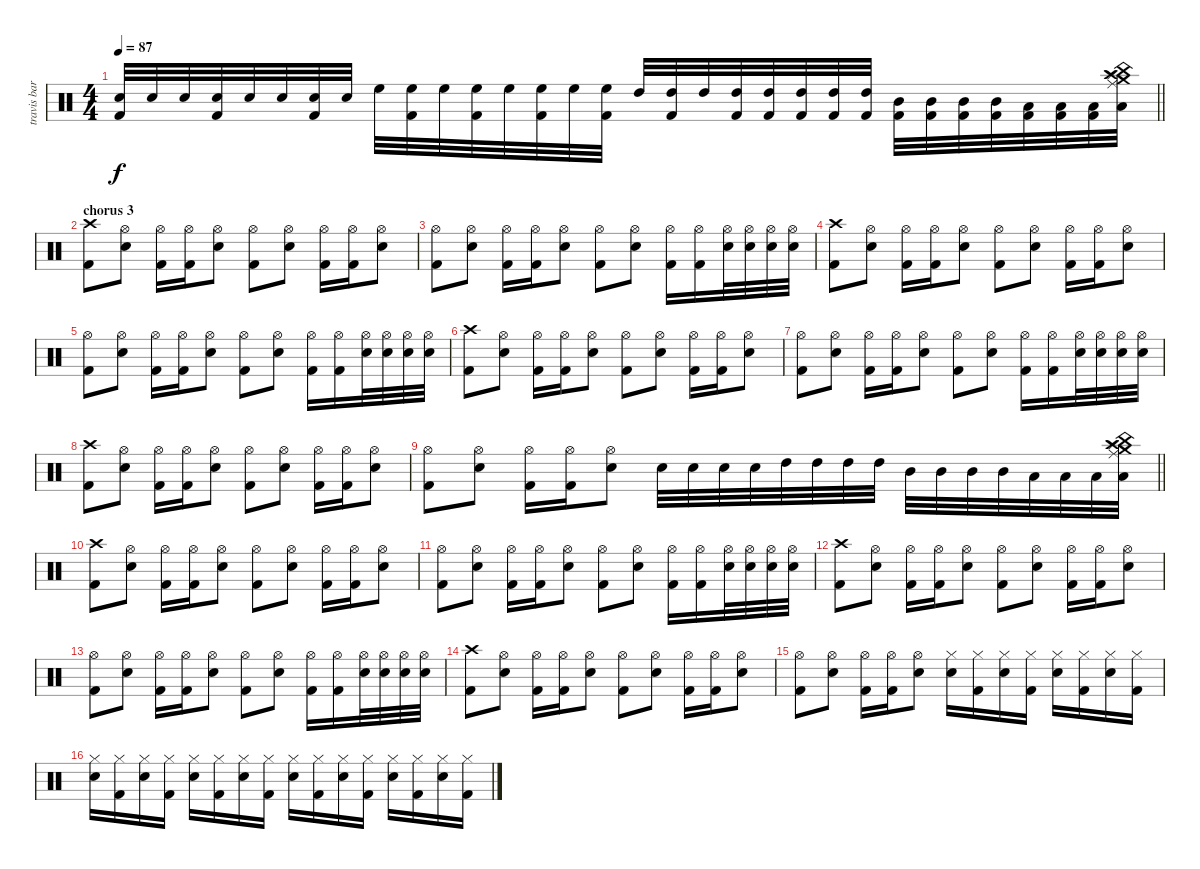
\track ("travis barker" "travis bar") {instrument percussion}
\staff {score}
\articulation defaults
\ts (4 4)
\tempo 87
\clef neutral
\barLineRight lightlight
\ks c
("Snare (hit) 2" "Kick (hit) 2").32{dy f} "Snare (hit) 2".32 "Snare (hit) 2".32 ("Snare (hit) 2" "Kick (hit) 2").32 "Snare (hit) 2".32 "Snare (hit) 2".32 ("Snare (hit) 2" "Kick (hit) 2").32 "Snare (hit) 2".32 "High Floor Tom (hit)".32 ("High Floor Tom (hit)" "Kick (hit) 2").32 "High Floor Tom (hit)".32 ("High Floor Tom (hit)" "Kick (hit) 2").32 "High Floor Tom (hit)".32 ("High Floor Tom (hit)" "Kick (hit) 2").32 "High Floor Tom (hit)".32 ("High Floor Tom (hit)" "Kick (hit) 2").32 "High Tom (hit)".32 ("High Tom (hit)" "Kick (hit) 2").32 "High Tom (hit)".32 ("High Tom (hit)" "Kick (hit) 2").32 ("High Tom (hit)" "Kick (hit) 2").32 ("High Tom (hit)" "Kick (hit) 2").32 ("High Tom (hit)" "Kick (hit) 2").32 ("High Tom (hit)" "Kick (hit) 2").32 ("Mid Tom (hit)" "Kick (hit) 2").32 ("Mid Tom (hit)" "Kick (hit) 2").32 ("Mid Tom (hit)" "Kick (hit) 2").32 ("Mid Tom (hit)" "Kick (hit) 2").32 ("Low Tom (hit)" "Kick (hit) 2").32 ("Low Tom (hit)" "Kick (hit) 2").32 ("Low Tom (hit)" "Kick (hit) 2").32 ("Splash (hit)" "China (hit)" "Ride (middle)" "Low Tom (hit)" "Crash high (hit)" "Crash medium (hit)").32 |
\section ("" "chorus 3")
("Crash high (hit)" "Kick (hit) 2").8 ("Hi-Hat (open)" "Snare (hit) 2").8 ("Hi-Hat (open)" "Kick (hit) 2").16 ("Hi-Hat (open)" "Kick (hit) 2").16 ("Hi-Hat (open)" "Snare (hit) 2").8 ("Hi-Hat (open)" "Kick (hit) 2").8 ("Hi-Hat (open)" "Snare (hit) 2").8 ("Hi-Hat (open)" "Kick (hit) 2").16 ("Hi-Hat (open)" "Kick (hit) 2").16 ("Hi-Hat (open)" "Snare (hit) 2").8 |
("Hi-Hat (open)" "Kick (hit) 2").8 ("Hi-Hat (open)" "Snare (hit) 2").8 ("Hi-Hat (open)" "Kick (hit) 2").16 ("Hi-Hat (open)" "Kick (hit) 2").16 ("Hi-Hat (open)" "Snare (hit) 2").8 ("Hi-Hat (open)" "Kick (hit) 2").8 ("Hi-Hat (open)" "Snare (hit) 2").8 ("Hi-Hat (open)" "Kick (hit) 2").16 ("Hi-Hat (open)" "Kick (hit) 2").16 ("Hi-Hat (open)" "Snare (hit) 2").32 ("Hi-Hat (open)" "Snare (hit) 2").32 ("Hi-Hat (open)" "Snare (hit) 2").32 ("Hi-Hat (open)" "Snare (hit) 2").32 |
("Crash high (hit)" "Kick (hit) 2").8 ("Hi-Hat (open)" "Snare (hit) 2").8 ("Hi-Hat (open)" "Kick (hit) 2").16 ("Hi-Hat (open)" "Kick (hit) 2").16 ("Hi-Hat (open)" "Snare (hit) 2").8 ("Hi-Hat (open)" "Kick (hit) 2").8 ("Hi-Hat (open)" "Snare (hit) 2").8 ("Hi-Hat (open)" "Kick (hit) 2").16 ("Hi-Hat (open)" "Kick (hit) 2").16 ("Hi-Hat (open)" "Snare (hit) 2").8 |
("Hi-Hat (open)" "Kick (hit) 2").8 ("Hi-Hat (open)" "Snare (hit) 2").8 ("Hi-Hat (open)" "Kick (hit) 2").16 ("Hi-Hat (open)" "Kick (hit) 2").16 ("Hi-Hat (open)" "Snare (hit) 2").8 ("Hi-Hat (open)" "Kick (hit) 2").8 ("Hi-Hat (open)" "Snare (hit) 2").8 ("Hi-Hat (open)" "Kick (hit) 2").16 ("Hi-Hat (open)" "Kick (hit) 2").16 ("Hi-Hat (open)" "Snare (hit) 2").32 ("Hi-Hat (open)" "Snare (hit) 2").32 ("Hi-Hat (open)" "Snare (hit) 2").32 ("Hi-Hat (open)" "Snare (hit) 2").32 |
("Crash high (hit)" "Kick (hit) 2").8 ("Hi-Hat (open)" "Snare (hit) 2").8 ("Hi-Hat (open)" "Kick (hit) 2").16 ("Hi-Hat (open)" "Kick (hit) 2").16 ("Hi-Hat (open)" "Snare (hit) 2").8 ("Hi-Hat (open)" "Kick (hit) 2").8 ("Hi-Hat (open)" "Snare (hit) 2").8 ("Hi-Hat (open)" "Kick (hit) 2").16 ("Hi-Hat (open)" "Kick (hit) 2").16 ("Hi-Hat (open)" "Snare (hit) 2").8 |
("Hi-Hat (open)" "Kick (hit) 2").8 ("Hi-Hat (open)" "Snare (hit) 2").8 ("Hi-Hat (open)" "Kick (hit) 2").16 ("Hi-Hat (open)" "Kick (hit) 2").16 ("Hi-Hat (open)" "Snare (hit) 2").8 ("Hi-Hat (open)" "Kick (hit) 2").8 ("Hi-Hat (open)" "Snare (hit) 2").8 ("Hi-Hat (open)" "Kick (hit) 2").16 ("Hi-Hat (open)" "Kick (hit) 2").16 ("Hi-Hat (open)" "Snare (hit) 2").32 ("Hi-Hat (open)" "Snare (hit) 2").32 ("Hi-Hat (open)" "Snare (hit) 2").32 ("Hi-Hat (open)" "Snare (hit) 2").32 |
("Crash high (hit)" "Kick (hit) 2").8 ("Hi-Hat (open)" "Snare (hit) 2").8 ("Hi-Hat (open)" "Kick (hit) 2").16 ("Hi-Hat (open)" "Kick (hit) 2").16 ("Hi-Hat (open)" "Snare (hit) 2").8 ("Hi-Hat (open)" "Kick (hit) 2").8 ("Hi-Hat (open)" "Snare (hit) 2").8 ("Hi-Hat (open)" "Kick (hit) 2").16 ("Hi-Hat (open)" "Kick (hit) 2").16 ("Hi-Hat (open)" "Snare (hit) 2").8 |
\barLineRight lightlight
("Hi-Hat (open)" "Kick (hit) 2").8 ("Hi-Hat (open)" "Snare (hit) 2").8 ("Hi-Hat (open)" "Kick (hit) 2").16 ("Hi-Hat (open)" "Kick (hit) 2").16 ("Hi-Hat (open)" "Snare (hit) 2").8 "Snare (hit) 2".32 "Snare (hit) 2".32 "Snare (hit) 2".32 "Snare (hit) 2".32 "High Tom (hit)".32 "High Tom (hit)".32 "High Tom (hit)".32 "High Tom (hit)".32 "Mid Tom (hit)".32 "Mid Tom (hit)".32 "Mid Tom (hit)".32 "Mid Tom (hit)".32 "Low Tom (hit)".32 "Low Tom (hit)".32 "Low Tom (hit)".32 ("Crash high (hit)" "Ride (middle)" "China (hit)" "Low Tom (hit)" "Splash (hit)" "Crash medium (hit)").32 |
("Crash high (hit)" "Kick (hit) 2").8 ("Hi-Hat (open)" "Snare (hit) 2").8 ("Hi-Hat (open)" "Kick (hit) 2").16 ("Hi-Hat (open)" "Kick (hit) 2").16 ("Hi-Hat (open)" "Snare (hit) 2").8 ("Hi-Hat (open)" "Kick (hit) 2").8 ("Hi-Hat (open)" "Snare (hit) 2").8 ("Hi-Hat (open)" "Kick (hit) 2").16 ("Hi-Hat (open)" "Kick (hit) 2").16 ("Hi-Hat (open)" "Snare (hit) 2").8 |
("Hi-Hat (open)" "Kick (hit) 2").8 ("Hi-Hat (open)" "Snare (hit) 2").8 ("Hi-Hat (open)" "Kick (hit) 2").16 ("Hi-Hat (open)" "Kick (hit) 2").16 ("Hi-Hat (open)" "Snare (hit) 2").8 ("Hi-Hat (open)" "Kick (hit) 2").8 ("Hi-Hat (open)" "Snare (hit) 2").8 ("Hi-Hat (open)" "Kick (hit) 2").16 ("Hi-Hat (open)" "Kick (hit) 2").16 ("Hi-Hat (open)" "Snare (hit) 2").32 ("Hi-Hat (open)" "Snare (hit) 2").32 ("Hi-Hat (open)" "Snare (hit) 2").32 ("Hi-Hat (open)" "Snare (hit) 2").32 |
("Crash high (hit)" "Kick (hit) 2").8 ("Hi-Hat (open)" "Snare (hit) 2").8 ("Hi-Hat (open)" "Kick (hit) 2").16 ("Hi-Hat (open)" "Kick (hit) 2").16 ("Hi-Hat (open)" "Snare (hit) 2").8 ("Hi-Hat (open)" "Kick (hit) 2").8 ("Hi-Hat (open)" "Snare (hit) 2").8 ("Hi-Hat (open)" "Kick (hit) 2").16 ("Hi-Hat (open)" "Kick (hit) 2").16 ("Hi-Hat (open)" "Snare (hit) 2").8 |
("Hi-Hat (open)" "Kick (hit) 2").8 ("Hi-Hat (open)" "Snare (hit) 2").8 ("Hi-Hat (open)" "Kick (hit) 2").16 ("Hi-Hat (open)" "Kick (hit) 2").16 ("Hi-Hat (open)" "Snare (hit) 2").8 ("Hi-Hat (open)" "Kick (hit) 2").8 ("Hi-Hat (open)" "Snare (hit) 2").8 ("Hi-Hat (open)" "Kick (hit) 2").16 ("Hi-Hat (open)" "Kick (hit) 2").16 ("Hi-Hat (open)" "Snare (hit) 2").32 ("Hi-Hat (open)" "Snare (hit) 2").32 ("Hi-Hat (open)" "Snare (hit) 2").32 ("Hi-Hat (open)" "Snare (hit) 2").32 |
("Crash high (hit)" "Kick (hit) 2").8 ("Hi-Hat (open)" "Snare (hit) 2").8 ("Hi-Hat (open)" "Kick (hit) 2").16 ("Hi-Hat (open)" "Kick (hit) 2").16 ("Hi-Hat (open)" "Snare (hit) 2").8 ("Hi-Hat (open)" "Kick (hit) 2").8 ("Hi-Hat (open)" "Snare (hit) 2").8 ("Hi-Hat (open)" "Kick (hit) 2").16 ("Hi-Hat (open)" "Kick (hit) 2").16 ("Hi-Hat (open)" "Snare (hit) 2").8 |
("Hi-Hat (open)" "Kick (hit) 2").8 ("Hi-Hat (open)" "Snare (hit) 2").8 ("Hi-Hat (open)" "Kick (hit) 2").16 ("Hi-Hat (open)" "Kick (hit) 2").16 ("Hi-Hat (open)" "Snare (hit) 2").8 ("Hi-Hat (closed)" "Snare (hit) 2").16 ("Hi-Hat (closed)" "Kick (hit) 2").16 ("Hi-Hat (closed)" "Snare (hit) 2").16 ("Hi-Hat (closed)" "Kick (hit) 2").16 ("Hi-Hat (closed)" "Snare (hit) 2").16 ("Hi-Hat (closed)" "Kick (hit) 2").16 ("Hi-Hat (closed)" "Snare (hit) 2").16 ("Hi-Hat (closed)" "Kick (hit) 2").16 |
("Hi-Hat (closed)" "Snare (hit) 2").16 ("Hi-Hat (closed)" "Kick (hit) 2").16 ("Hi-Hat (closed)" "Snare (hit) 2").16 ("Hi-Hat (closed)" "Kick (hit) 2").16 ("Hi-Hat (closed)" "Snare (hit) 2").16 ("Hi-Hat (closed)" "Kick (hit) 2").16 ("Hi-Hat (closed)" "Snare (hit) 2").16 ("Hi-Hat (closed)" "Kick (hit) 2").16 ("Hi-Hat (closed)" "Snare (hit) 2").16 ("Hi-Hat (closed)" "Kick (hit) 2").16 ("Hi-Hat (closed)" "Snare (hit) 2").16 ("Hi-Hat (closed)" "Kick (hit) 2").16 ("Hi-Hat (closed)" "Snare (hit) 2").16 ("Hi-Hat (closed)" "Kick (hit) 2").16 ("Hi-Hat (closed)" "Snare (hit) 2").16 ("Hi-Hat (closed)" "Kick (hit) 2").16
